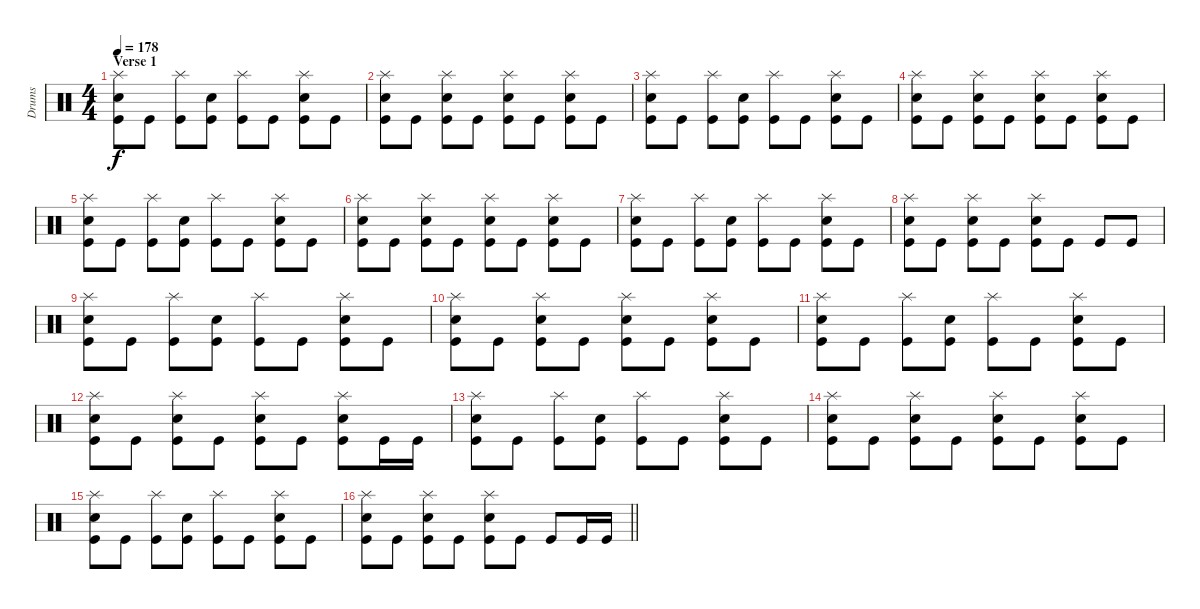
\track ("Drums" "Drums") {instrument percussion}
\staff {score}
\articulation defaults
\ts (4 4)
\section ("" "Verse 1")
\tempo 178
\clef neutral
\ks c
("Splash (hit)" "Snare (hit) 2" "Kick (hit)").8{dy f} "Kick (hit)".8 ("Splash (hit)" "Kick (hit)").8 ("Snare (hit) 2" "Kick (hit)").8 ("Splash (hit)" "Kick (hit)").8 "Kick (hit)".8 ("Splash (hit)" "Snare (hit) 2" "Kick (hit)").8 "Kick (hit)".8 |
("Splash (hit)" "Snare (hit) 2" "Kick (hit)").8 "Kick (hit)".8 ("Splash (hit)" "Snare (hit) 2" "Kick (hit)").8 "Kick (hit)".8 ("Splash (hit)" "Snare (hit) 2" "Kick (hit)").8 "Kick (hit)".8 ("Splash (hit)" "Snare (hit) 2" "Kick (hit)").8 "Kick (hit)".8 |
("Splash (hit)" "Snare (hit) 2" "Kick (hit)").8 "Kick (hit)".8 ("Splash (hit)" "Kick (hit)").8 ("Snare (hit) 2" "Kick (hit)").8 ("Splash (hit)" "Kick (hit)").8 "Kick (hit)".8 ("Splash (hit)" "Snare (hit) 2" "Kick (hit)").8 "Kick (hit)".8 |
("Splash (hit)" "Snare (hit) 2" "Kick (hit)").8 "Kick (hit)".8 ("Splash (hit)" "Snare (hit) 2" "Kick (hit)").8 "Kick (hit)".8 ("Splash (hit)" "Snare (hit) 2" "Kick (hit)").8 "Kick (hit)".8 ("Splash (hit)" "Snare (hit) 2" "Kick (hit)").8 "Kick (hit)".8 |
("Splash (hit)" "Snare (hit) 2" "Kick (hit)").8 "Kick (hit)".8 ("Splash (hit)" "Kick (hit)").8 ("Snare (hit) 2" "Kick (hit)").8 ("Splash (hit)" "Kick (hit)").8 "Kick (hit)".8 ("Splash (hit)" "Snare (hit) 2" "Kick (hit)").8 "Kick (hit)".8 |
("Splash (hit)" "Snare (hit) 2" "Kick (hit)").8 "Kick (hit)".8 ("Splash (hit)" "Snare (hit) 2" "Kick (hit)").8 "Kick (hit)".8 ("Splash (hit)" "Snare (hit) 2" "Kick (hit)").8 "Kick (hit)".8 ("Splash (hit)" "Snare (hit) 2" "Kick (hit)").8 "Kick (hit)".8 |
("Splash (hit)" "Snare (hit) 2" "Kick (hit)").8 "Kick (hit)".8 ("Splash (hit)" "Kick (hit)").8 ("Snare (hit) 2" "Kick (hit)").8 ("Splash (hit)" "Kick (hit)").8 "Kick (hit)".8 ("Splash (hit)" "Snare (hit) 2" "Kick (hit)").8 "Kick (hit)".8 |
("Splash (hit)" "Snare (hit) 2" "Kick (hit)").8 "Kick (hit)".8 ("Splash (hit)" "Snare (hit) 2" "Kick (hit)").8 "Kick (hit)".8 ("Splash (hit)" "Snare (hit) 2" "Kick (hit)").8 "Kick (hit)".8 "Kick (hit)".8 "Kick (hit)".8 |
("Splash (hit)" "Snare (hit) 2" "Kick (hit)").8 "Kick (hit)".8 ("Splash (hit)" "Kick (hit)").8 ("Snare (hit) 2" "Kick (hit)").8 ("Splash (hit)" "Kick (hit)").8 "Kick (hit)".8 ("Splash (hit)" "Snare (hit) 2" "Kick (hit)").8 "Kick (hit)".8 |
("Splash (hit)" "Snare (hit) 2" "Kick (hit)").8 "Kick (hit)".8 ("Splash (hit)" "Snare (hit) 2" "Kick (hit)").8 "Kick (hit)".8 ("Splash (hit)" "Snare (hit) 2" "Kick (hit)").8 "Kick (hit)".8 ("Splash (hit)" "Snare (hit) 2" "Kick (hit)").8 "Kick (hit)".8 |
("Splash (hit)" "Snare (hit) 2" "Kick (hit)").8 "Kick (hit)".8 ("Splash (hit)" "Kick (hit)").8 ("Snare (hit) 2" "Kick (hit)").8 ("Splash (hit)" "Kick (hit)").8 "Kick (hit)".8 ("Splash (hit)" "Snare (hit) 2" "Kick (hit)").8 "Kick (hit)".8 |
("Splash (hit)" "Snare (hit) 2" "Kick (hit)").8 "Kick (hit)".8 ("Splash (hit)" "Snare (hit) 2" "Kick (hit)").8 "Kick (hit)".8 ("Splash (hit)" "Snare (hit) 2" "Kick (hit)").8 "Kick (hit)".8 ("Splash (hit)" "Snare (hit) 2" "Kick (hit)").8 "Kick (hit)".16 "Kick (hit)".16 |
("Splash (hit)" "Snare (hit) 2" "Kick (hit)").8 "Kick (hit)".8 ("Splash (hit)" "Kick (hit)").8 ("Snare (hit) 2" "Kick (hit)").8 ("Splash (hit)" "Kick (hit)").8 "Kick (hit)".8 ("Splash (hit)" "Snare (hit) 2" "Kick (hit)").8 "Kick (hit)".8 |
("Splash (hit)" "Snare (hit) 2" "Kick (hit)").8 "Kick (hit)".8 ("Splash (hit)" "Snare (hit) 2" "Kick (hit)").8 "Kick (hit)".8 ("Splash (hit)" "Snare (hit) 2" "Kick (hit)").8 "Kick (hit)".8 ("Splash (hit)" "Snare (hit) 2" "Kick (hit)").8 "Kick (hit)".8 |
("Splash (hit)" "Snare (hit) 2" "Kick (hit)").8 "Kick (hit)".8 ("Splash (hit)" "Kick (hit)").8 ("Snare (hit) 2" "Kick (hit)").8 ("Splash (hit)" "Kick (hit)").8 "Kick (hit)".8 ("Splash (hit)" "Snare (hit) 2" "Kick (hit)").8 "Kick (hit)".8 |
\barLineRight lightlight
("Splash (hit)" "Snare (hit) 2" "Kick (hit)").8 "Kick (hit)".8 ("Splash (hit)" "Snare (hit) 2" "Kick (hit)").8 "Kick (hit)".8 ("Splash (hit)" "Snare (hit) 2" "Kick (hit)").8 "Kick (hit)".8 "Kick (hit)".8 "Kick (hit)".16 "Kick (hit)".16
